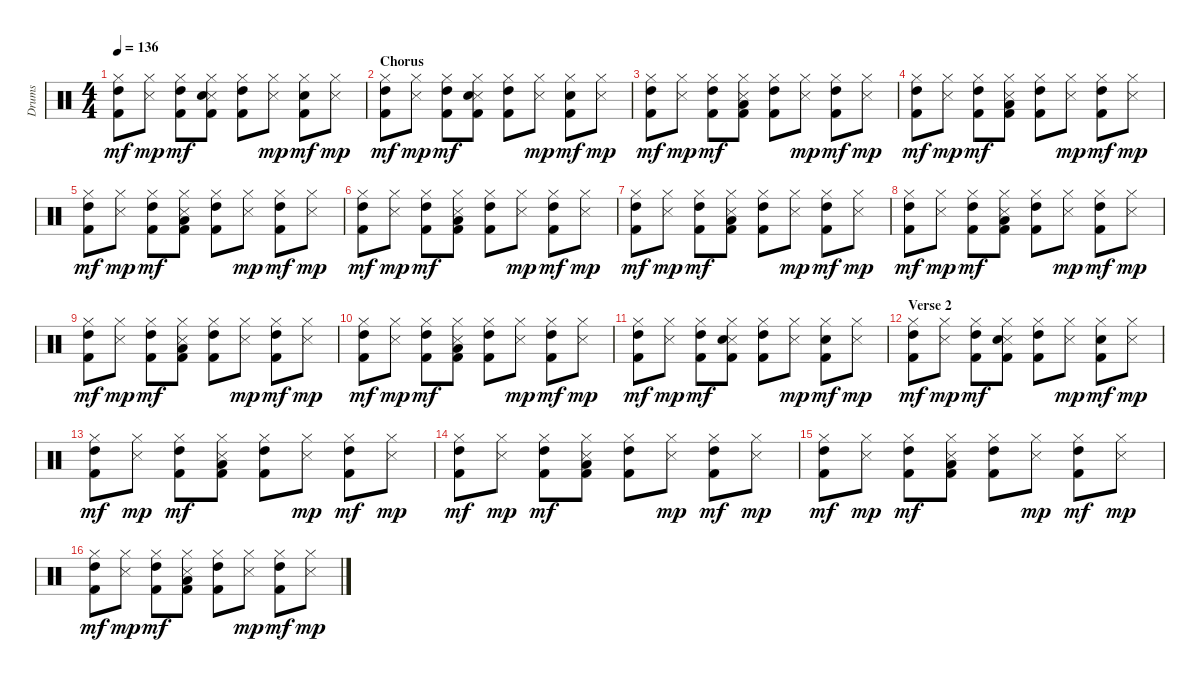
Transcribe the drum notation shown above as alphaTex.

\track ("Drums" "Drums") {instrument percussion}
\staff {score}
\articulation defaults
\ts (4 4)
\tempo 136
\clef neutral
\ks c
("Hi-Hat (closed)" "High Tom (hit)" "Kick (hit) 2").8{dy mf} ("Hi-Hat (closed)" "Metronome (hit)").8{dy mp} ("Hi-Hat (closed)" "High Tom (hit)" "Kick (hit) 2").8{dy mf} ("Hi-Hat (closed)" "Metronome (hit)" "Electric Snare (hit)" "Kick (hit) 2").8 ("Hi-Hat (closed)" "High Tom (hit)" "Kick (hit) 2").8 ("Hi-Hat (closed)" "Metronome (hit)").8{dy mp} ("Hi-Hat (closed)" "Electric Snare (hit)" "Kick (hit) 2").8{dy mf} ("Hi-Hat (closed)" "Metronome (hit)").8{dy mp} |
\section ("" "Chorus")
("Hi-Hat (closed)" "High Tom (hit)" "Kick (hit) 2").8{dy mf} ("Hi-Hat (closed)" "Metronome (hit)").8{dy mp} ("Hi-Hat (closed)" "High Tom (hit)" "Kick (hit) 2").8{dy mf} ("Hi-Hat (closed)" "Metronome (hit)" "Electric Snare (hit)" "Kick (hit) 2").8 ("Hi-Hat (closed)" "High Tom (hit)" "Kick (hit) 2").8 ("Hi-Hat (closed)" "Metronome (hit)").8{dy mp} ("Hi-Hat (closed)" "Electric Snare (hit)" "Kick (hit) 2").8{dy mf} ("Hi-Hat (closed)" "Metronome (hit)").8{dy mp} |
("Hi-Hat (closed)" "High Tom (hit)" "Kick (hit) 2").8{dy mf} ("Hi-Hat (closed)" "Metronome (hit)").8{dy mp} ("Hi-Hat (closed)" "High Tom (hit)" "Kick (hit) 2").8{dy mf} ("Hi-Hat (closed)" "Metronome (hit)" "Low Floor Tom (hit)" "Kick (hit) 2").8 ("Hi-Hat (closed)" "High Tom (hit)" "Kick (hit) 2").8 ("Hi-Hat (closed)" "Metronome (hit)").8{dy mp} ("Hi-Hat (closed)" "High Tom (hit)" "Kick (hit) 2").8{dy mf} ("Hi-Hat (closed)" "Metronome (hit)").8{dy mp} |
("Hi-Hat (closed)" "High Tom (hit)" "Kick (hit) 2").8{dy mf} ("Hi-Hat (closed)" "Metronome (hit)").8{dy mp} ("Hi-Hat (closed)" "High Tom (hit)" "Kick (hit) 2").8{dy mf} ("Hi-Hat (closed)" "Metronome (hit)" "Low Floor Tom (hit)" "Kick (hit) 2").8 ("Hi-Hat (closed)" "High Tom (hit)" "Kick (hit) 2").8 ("Hi-Hat (closed)" "Metronome (hit)").8{dy mp} ("Hi-Hat (closed)" "High Tom (hit)" "Kick (hit) 2").8{dy mf} ("Hi-Hat (closed)" "Metronome (hit)").8{dy mp} |
("Hi-Hat (closed)" "High Tom (hit)" "Kick (hit) 2").8{dy mf} ("Hi-Hat (closed)" "Metronome (hit)").8{dy mp} ("Hi-Hat (closed)" "High Tom (hit)" "Kick (hit) 2").8{dy mf} ("Hi-Hat (closed)" "Metronome (hit)" "Low Floor Tom (hit)" "Kick (hit) 2").8 ("Hi-Hat (closed)" "High Tom (hit)" "Kick (hit) 2").8 ("Hi-Hat (closed)" "Metronome (hit)").8{dy mp} ("Hi-Hat (closed)" "High Tom (hit)" "Kick (hit) 2").8{dy mf} ("Hi-Hat (closed)" "Metronome (hit)").8{dy mp} |
("Hi-Hat (closed)" "High Tom (hit)" "Kick (hit) 2").8{dy mf} ("Hi-Hat (closed)" "Metronome (hit)").8{dy mp} ("Hi-Hat (closed)" "High Tom (hit)" "Kick (hit) 2").8{dy mf} ("Hi-Hat (closed)" "Metronome (hit)" "Low Floor Tom (hit)" "Kick (hit) 2").8 ("Hi-Hat (closed)" "High Tom (hit)" "Kick (hit) 2").8 ("Hi-Hat (closed)" "Metronome (hit)").8{dy mp} ("Hi-Hat (closed)" "High Tom (hit)" "Kick (hit) 2").8{dy mf} ("Hi-Hat (closed)" "Metronome (hit)").8{dy mp} |
("Hi-Hat (closed)" "High Tom (hit)" "Kick (hit) 2").8{dy mf} ("Hi-Hat (closed)" "Metronome (hit)").8{dy mp} ("Hi-Hat (closed)" "High Tom (hit)" "Kick (hit) 2").8{dy mf} ("Hi-Hat (closed)" "Metronome (hit)" "Low Floor Tom (hit)" "Kick (hit) 2").8 ("Hi-Hat (closed)" "High Tom (hit)" "Kick (hit) 2").8 ("Hi-Hat (closed)" "Metronome (hit)").8{dy mp} ("Hi-Hat (closed)" "High Tom (hit)" "Kick (hit) 2").8{dy mf} ("Hi-Hat (closed)" "Metronome (hit)").8{dy mp} |
("Hi-Hat (closed)" "High Tom (hit)" "Kick (hit) 2").8{dy mf} ("Hi-Hat (closed)" "Metronome (hit)").8{dy mp} ("Hi-Hat (closed)" "High Tom (hit)" "Kick (hit) 2").8{dy mf} ("Hi-Hat (closed)" "Metronome (hit)" "Low Floor Tom (hit)" "Kick (hit) 2").8 ("Hi-Hat (closed)" "High Tom (hit)" "Kick (hit) 2").8 ("Hi-Hat (closed)" "Metronome (hit)").8{dy mp} ("Hi-Hat (closed)" "High Tom (hit)" "Kick (hit) 2").8{dy mf} ("Hi-Hat (closed)" "Metronome (hit)").8{dy mp} |
("Hi-Hat (closed)" "High Tom (hit)" "Kick (hit) 2").8{dy mf} ("Hi-Hat (closed)" "Metronome (hit)").8{dy mp} ("Hi-Hat (closed)" "High Tom (hit)" "Kick (hit) 2").8{dy mf} ("Hi-Hat (closed)" "Metronome (hit)" "Low Floor Tom (hit)" "Kick (hit) 2").8 ("Hi-Hat (closed)" "High Tom (hit)" "Kick (hit) 2").8 ("Hi-Hat (closed)" "Metronome (hit)").8{dy mp} ("Hi-Hat (closed)" "High Tom (hit)" "Kick (hit) 2").8{dy mf} ("Hi-Hat (closed)" "Metronome (hit)").8{dy mp} |
("Hi-Hat (closed)" "High Tom (hit)" "Kick (hit) 2").8{dy mf} ("Hi-Hat (closed)" "Metronome (hit)").8{dy mp} ("Hi-Hat (closed)" "High Tom (hit)" "Kick (hit) 2").8{dy mf} ("Hi-Hat (closed)" "Metronome (hit)" "Low Floor Tom (hit)" "Kick (hit) 2").8 ("Hi-Hat (closed)" "High Tom (hit)" "Kick (hit) 2").8 ("Hi-Hat (closed)" "Metronome (hit)").8{dy mp} ("Hi-Hat (closed)" "High Tom (hit)" "Kick (hit) 2").8{dy mf} ("Hi-Hat (closed)" "Metronome (hit)").8{dy mp} |
("Hi-Hat (closed)" "High Tom (hit)" "Kick (hit) 2").8{dy mf} ("Hi-Hat (closed)" "Metronome (hit)").8{dy mp} ("Hi-Hat (closed)" "High Tom (hit)" "Kick (hit) 2").8{dy mf} ("Hi-Hat (closed)" "Metronome (hit)" "Electric Snare (hit)" "Kick (hit) 2").8 ("Hi-Hat (closed)" "High Tom (hit)" "Kick (hit) 2").8 ("Hi-Hat (closed)" "Metronome (hit)").8{dy mp} ("Hi-Hat (closed)" "Electric Snare (hit)" "Kick (hit) 2").8{dy mf} ("Hi-Hat (closed)" "Metronome (hit)").8{dy mp} |
\section ("" "Verse 2")
("Hi-Hat (closed)" "High Tom (hit)" "Kick (hit) 2").8{dy mf} ("Hi-Hat (closed)" "Metronome (hit)").8{dy mp} ("Hi-Hat (closed)" "High Tom (hit)" "Kick (hit) 2").8{dy mf} ("Hi-Hat (closed)" "Metronome (hit)" "Electric Snare (hit)" "Kick (hit) 2").8 ("Hi-Hat (closed)" "High Tom (hit)" "Kick (hit) 2").8 ("Hi-Hat (closed)" "Metronome (hit)").8{dy mp} ("Hi-Hat (closed)" "Electric Snare (hit)" "Kick (hit) 2").8{dy mf} ("Hi-Hat (closed)" "Metronome (hit)").8{dy mp} |
("Hi-Hat (closed)" "High Tom (hit)" "Kick (hit) 2").8{dy mf} ("Hi-Hat (closed)" "Metronome (hit)").8{dy mp} ("Hi-Hat (closed)" "High Tom (hit)" "Kick (hit) 2").8{dy mf} ("Hi-Hat (closed)" "Metronome (hit)" "Low Floor Tom (hit)" "Kick (hit) 2").8 ("Hi-Hat (closed)" "High Tom (hit)" "Kick (hit) 2").8 ("Hi-Hat (closed)" "Metronome (hit)").8{dy mp} ("Hi-Hat (closed)" "High Tom (hit)" "Kick (hit) 2").8{dy mf} ("Hi-Hat (closed)" "Metronome (hit)").8{dy mp} |
("Hi-Hat (closed)" "High Tom (hit)" "Kick (hit) 2").8{dy mf} ("Hi-Hat (closed)" "Metronome (hit)").8{dy mp} ("Hi-Hat (closed)" "High Tom (hit)" "Kick (hit) 2").8{dy mf} ("Hi-Hat (closed)" "Metronome (hit)" "Low Floor Tom (hit)" "Kick (hit) 2").8 ("Hi-Hat (closed)" "High Tom (hit)" "Kick (hit) 2").8 ("Hi-Hat (closed)" "Metronome (hit)").8{dy mp} ("Hi-Hat (closed)" "High Tom (hit)" "Kick (hit) 2").8{dy mf} ("Hi-Hat (closed)" "Metronome (hit)").8{dy mp} |
("Hi-Hat (closed)" "High Tom (hit)" "Kick (hit) 2").8{dy mf} ("Hi-Hat (closed)" "Metronome (hit)").8{dy mp} ("Hi-Hat (closed)" "High Tom (hit)" "Kick (hit) 2").8{dy mf} ("Hi-Hat (closed)" "Metronome (hit)" "Low Floor Tom (hit)" "Kick (hit) 2").8 ("Hi-Hat (closed)" "High Tom (hit)" "Kick (hit) 2").8 ("Hi-Hat (closed)" "Metronome (hit)").8{dy mp} ("Hi-Hat (closed)" "High Tom (hit)" "Kick (hit) 2").8{dy mf} ("Hi-Hat (closed)" "Metronome (hit)").8{dy mp} |
("Hi-Hat (closed)" "High Tom (hit)" "Kick (hit) 2").8{dy mf} ("Hi-Hat (closed)" "Metronome (hit)").8{dy mp} ("Hi-Hat (closed)" "High Tom (hit)" "Kick (hit) 2").8{dy mf} ("Hi-Hat (closed)" "Metronome (hit)" "Low Floor Tom (hit)" "Kick (hit) 2").8 ("Hi-Hat (closed)" "High Tom (hit)" "Kick (hit) 2").8 ("Hi-Hat (closed)" "Metronome (hit)").8{dy mp} ("Hi-Hat (closed)" "High Tom (hit)" "Kick (hit) 2").8{dy mf} ("Hi-Hat (closed)" "Metronome (hit)").8{dy mp}
